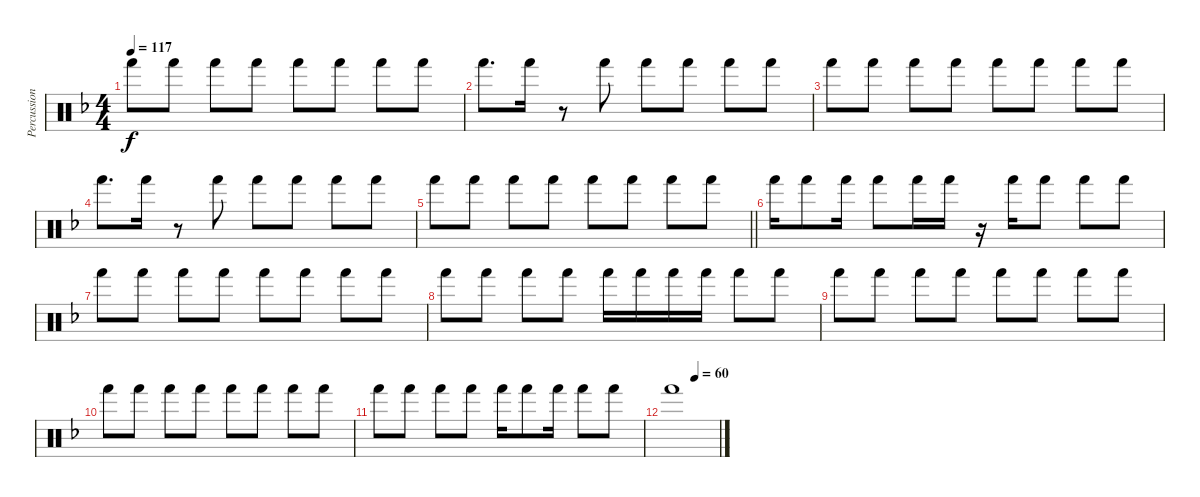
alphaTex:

\track ("Percussion" "Percussion") {instrument percussion}
\staff {score}
\articulation defaults
\ts (4 4)
\tempo 117
\clef neutral
\ks f "Hand (hit)".8{dy f} "Hand (hit)".8 "Hand (hit)".8 "Hand (hit)".8 "Hand (hit)".8 "Hand (hit)".8 "Hand (hit)".8 "Hand (hit)".8
|
"Hand (hit)".8{d} "Hand (hit)".16 r.8 "Hand (hit)".8 "Hand (hit)".8 "Hand (hit)".8 "Hand (hit)".8 "Hand (hit)".8 |
"Hand (hit)".8 "Hand (hit)".8 "Hand (hit)".8 "Hand (hit)".8 "Hand (hit)".8 "Hand (hit)".8 "Hand (hit)".8 "Hand (hit)".8 |
"Hand (hit)".8{d} "Hand (hit)".16 r.8 "Hand (hit)".8 "Hand (hit)".8 "Hand (hit)".8 "Hand (hit)".8 "Hand (hit)".8 |
\barLineRight lightlight "Hand (hit)".8 "Hand (hit)".8 "Hand (hit)".8 "Hand (hit)".8 "Hand (hit)".8 "Hand (hit)".8 "Hand (hit)".8 "Hand (hit)".8
|
"Hand (hit)".16 "Hand (hit)".8 "Hand (hit)".16 "Hand (hit)".8 "Hand (hit)".16 "Hand (hit)".16 r.16 "Hand (hit)".16 "Hand (hit)".8 "Hand (hit)".8 "Hand (hit)".8 |
"Hand (hit)".8 "Hand (hit)".8 "Hand (hit)".8 "Hand (hit)".8 "Hand (hit)".8 "Hand (hit)".8 "Hand (hit)".8 "Hand (hit)".8 |
"Hand (hit)".8 "Hand (hit)".8 "Hand (hit)".8 "Hand (hit)".8 "Hand (hit)".16 "Hand (hit)".16 "Hand (hit)".16 "Hand (hit)".16 "Hand (hit)".8 "Hand (hit)".8 |
"Hand (hit)".8 "Hand (hit)".8 "Hand (hit)".8 "Hand (hit)".8 "Hand (hit)".8 "Hand (hit)".8 "Hand (hit)".8 "Hand (hit)".8 |
"Hand (hit)".8 "Hand (hit)".8 "Hand (hit)".8 "Hand (hit)".8 "Hand (hit)".8 "Hand (hit)".8 "Hand (hit)".8 "Hand (hit)".8 |
"Hand (hit)".8 "Hand (hit)".8 "Hand (hit)".8 "Hand (hit)".8 "Hand (hit)".16 "Hand (hit)".8 "Hand (hit)".16 "Hand (hit)".8 "Hand (hit)".8 |
\tempo (60 0.5)
"Hand (hit)".1
